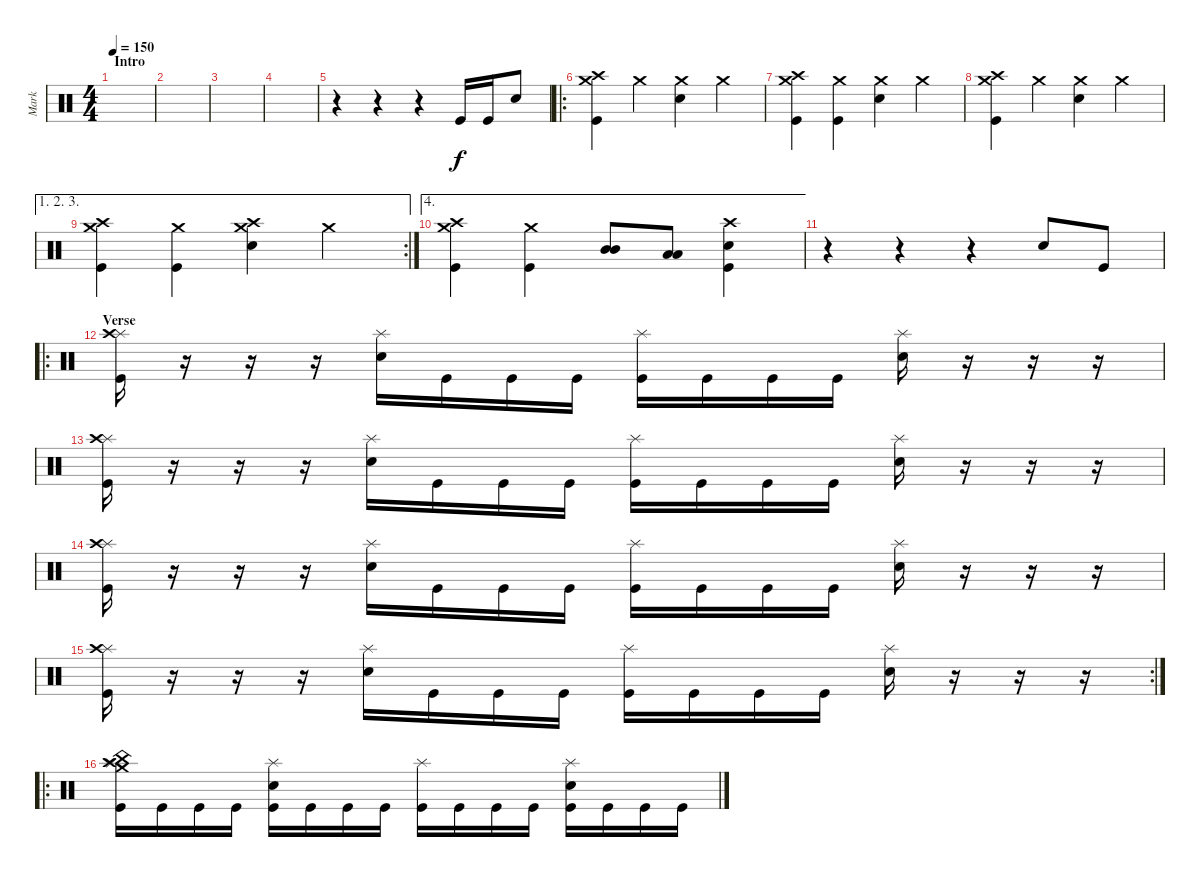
\track ("Mark" "Mark") {instrument percussion}
\staff {score}
\articulation defaults
\ts (4 4)
\section ("" "Intro")
\tempo 150
\clef neutral
\ks c
|
|
|
|
r.4 r.4 r.4 "Kick (hit)".16 "Kick (hit)".16 "Electric Snare (hit)".8 |
\ro
("Crash high (hit)" "Crash medium (hit)" "Kick (hit)").4 "Crash medium (hit)".4 ("Crash medium (hit)" "Electric Snare (hit)").4 "Crash medium (hit)".4 |
("Crash high (hit)" "Crash medium (hit)" "Kick (hit)").4 ("Crash medium (hit)" "Kick (hit)").4 ("Crash medium (hit)" "Electric Snare (hit)").4 "Crash medium (hit)".4 |
("Crash high (hit)" "Crash medium (hit)" "Kick (hit)").4 "Crash medium (hit)".4 ("Crash medium (hit)" "Electric Snare (hit)").4 "Crash medium (hit)".4 |
\ae (1 2 3)
\rc 2
("Crash high (hit)" "Crash medium (hit)" "Kick (hit)").4 ("Crash medium (hit)" "Kick (hit)").4 ("Crash high (hit)" "Crash medium (hit)" "Electric Snare (hit)").4 "Crash medium (hit)".4 |
\ae 4
("Crash high (hit)" "Crash medium (hit)" "Kick (hit)").4 ("Crash medium (hit)" "Kick (hit)").4 ("Mid Tom (hit)" "Mid Tom (hit)").8 ("Low Tom (hit)" "Low Tom (hit)").8 ("Crash high (hit)" "Kick (hit)" "Electric Snare (hit)").4 |
r.4 r.4 r.4 "Electric Snare (hit)".8 "Kick (hit)".8 |
\ro
\section ("" "Verse")
("Splash (hit)" "Crash high (hit)" "Kick (hit)").16 r.16 r.16 r.16 ("Splash (hit)" "Electric Snare (hit)").16 "Kick (hit)".16 "Kick (hit)".16 "Kick (hit)".16 ("Splash (hit)" "Kick (hit)").16 "Kick (hit)".16 "Kick (hit)".16 "Kick (hit)".16 ("Splash (hit)" "Electric Snare (hit)").16 r.16 r.16 r.16 |
("Splash (hit)" "Crash high (hit)" "Kick (hit)").16 r.16 r.16 r.16 ("Splash (hit)" "Electric Snare (hit)").16 "Kick (hit)".16 "Kick (hit)".16 "Kick (hit)".16 ("Splash (hit)" "Kick (hit)").16 "Kick (hit)".16 "Kick (hit)".16 "Kick (hit)".16 ("Splash (hit)" "Electric Snare (hit)").16 r.16 r.16 r.16 |
("Splash (hit)" "Crash high (hit)" "Kick (hit)").16 r.16 r.16 r.16 ("Splash (hit)" "Electric Snare (hit)").16 "Kick (hit)".16 "Kick (hit)".16 "Kick (hit)".16 ("Splash (hit)" "Kick (hit)").16 "Kick (hit)".16 "Kick (hit)".16 "Kick (hit)".16 ("Splash (hit)" "Electric Snare (hit)").16 r.16 r.16 r.16 |
\rc 2
("Splash (hit)" "Crash high (hit)" "Kick (hit)").16 r.16 r.16 r.16 ("Splash (hit)" "Electric Snare (hit)").16 "Kick (hit)".16 "Kick (hit)".16 "Kick (hit)".16 ("Splash (hit)" "Kick (hit)").16 "Kick (hit)".16 "Kick (hit)".16 "Kick (hit)".16 ("Splash (hit)" "Electric Snare (hit)").16 r.16 r.16 r.16 |
\ro
("China (hit)" "Crash medium (hit)" "Splash (hit)" "Crash high (hit)" "Kick (hit)").16 "Kick (hit)".16 "Kick (hit)".16 "Kick (hit)".16 ("Splash (hit)" "Electric Snare (hit)" "Kick (hit)").16 "Kick (hit)".16 "Kick (hit)".16 "Kick (hit)".16 ("Splash (hit)" "Kick (hit)").16 "Kick (hit)".16 "Kick (hit)".16 "Kick (hit)".16 ("Splash (hit)" "Electric Snare (hit)" "Kick (hit)").16 "Kick (hit)".16 "Kick (hit)".16 "Kick (hit)".16
